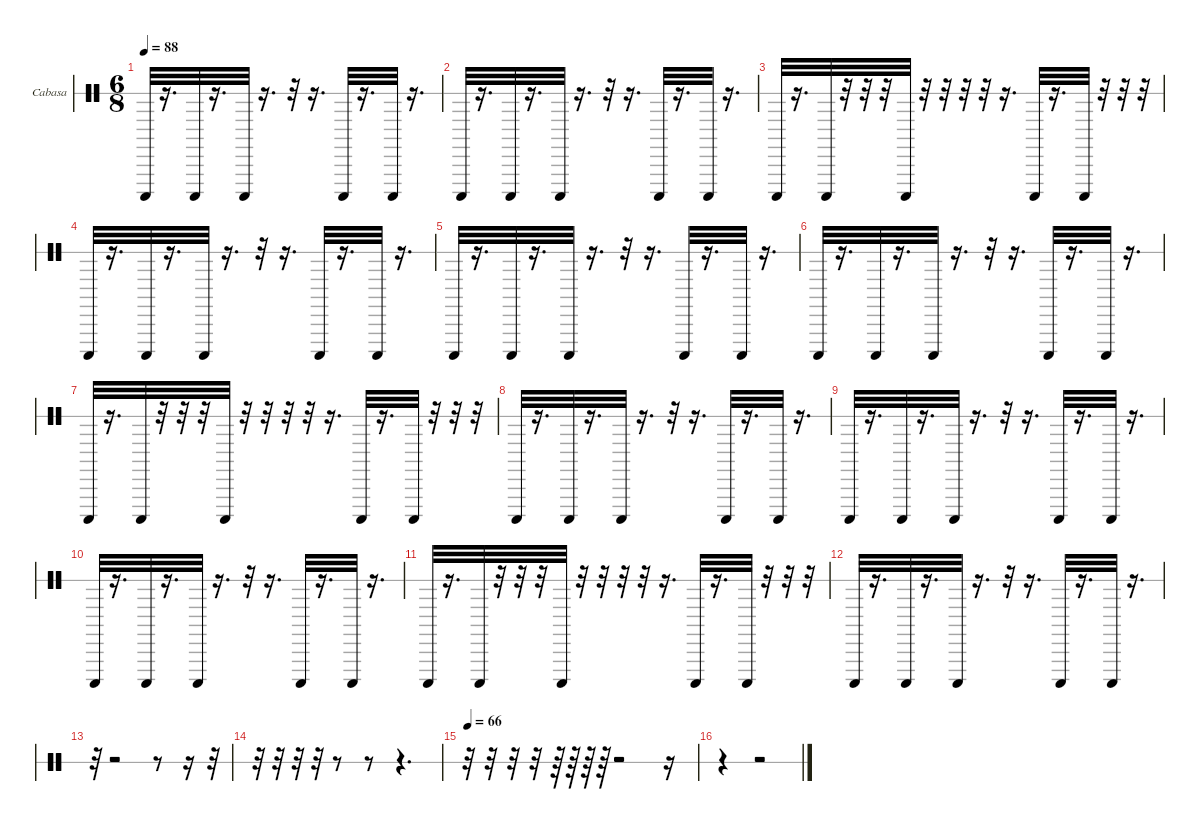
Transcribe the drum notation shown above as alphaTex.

\hideDynamics
\bracketExtendMode nobrackets
\firstSystemTrackNameOrientation horizontal
\otherSystemsTrackNameOrientation horizontal
\track ("Cabasa" "Cabasa") {instrument percussion}
\staff {score 1}
\articulation defaults
\ts (6 8)
\tempo 88
\clef neutral
\ks c "Cabasa (hit)".32{dy fff}
r.16{d} "Cabasa (hit)".32{dy mf} r.16{d} "Cabasa (hit)".32{dy mp} r.16{d} r.32 r.16{d} "Cabasa (hit)".32{dy mf} r.16{d} "Cabasa (hit)".32{dy mp} r.16{d} |
"Cabasa (hit)".32{dy fff} r.16{d} "Cabasa (hit)".32{dy mf} r.16{d} "Cabasa (hit)".32{dy mp} r.16{d} r.32 r.16{d} "Cabasa (hit)".32{dy mf} r.16{d} "Cabasa (hit)".32{dy mp} r.16{d} |
"Cabasa (hit)".32{dy fff} r.16{d} "Cabasa (hit)".32{dy mf} r.32 r.32 r.32 "Cabasa (hit)".32{dy ff} r.32 r.32 r.32 r.32 r.16{d} "Cabasa (hit)".32 r.16{d} "Cabasa (hit)".32{dy f} r.32 r.32 r.32 |
"Cabasa (hit)".32{dy fff} r.16{d} "Cabasa (hit)".32{dy mf} r.16{d} "Cabasa (hit)".32{dy mp} r.16{d} r.32 r.16{d} "Cabasa (hit)".32{dy mf} r.16{d} "Cabasa (hit)".32{dy mp} r.16{d} |
"Cabasa (hit)".32{dy fff} r.16{d} "Cabasa (hit)".32{dy mf} r.16{d} "Cabasa (hit)".32{dy mp} r.16{d} r.32 r.16{d} "Cabasa (hit)".32{dy mf} r.16{d} "Cabasa (hit)".32{dy mp} r.16{d} |
"Cabasa (hit)".32{dy fff} r.16{d} "Cabasa (hit)".32{dy mf} r.16{d} "Cabasa (hit)".32{dy mp} r.16{d} r.32 r.16{d} "Cabasa (hit)".32{dy mf} r.16{d} "Cabasa (hit)".32{dy mp} r.16{d} |
"Cabasa (hit)".32{dy fff} r.16{d} "Cabasa (hit)".32{dy mf} r.32 r.32 r.32 "Cabasa (hit)".32{dy ff} r.32 r.32 r.32 r.32 r.16{d} "Cabasa (hit)".32 r.16{d} "Cabasa (hit)".32{dy f} r.32 r.32 r.32 |
"Cabasa (hit)".32{dy fff} r.16{d} "Cabasa (hit)".32{dy mf} r.16{d} "Cabasa (hit)".32{dy mp} r.16{d} r.32 r.16{d} "Cabasa (hit)".32{dy mf} r.16{d} "Cabasa (hit)".32{dy mp} r.16{d} |
"Cabasa (hit)".32{dy fff} r.16{d} "Cabasa (hit)".32{dy mf} r.16{d} "Cabasa (hit)".32{dy mp} r.16{d} r.32 r.16{d} "Cabasa (hit)".32{dy mf} r.16{d} "Cabasa (hit)".32{dy mp} r.16{d} |
"Cabasa (hit)".32{dy fff} r.16{d} "Cabasa (hit)".32{dy mf} r.16{d} "Cabasa (hit)".32{dy mp} r.16{d} r.32 r.16{d} "Cabasa (hit)".32{dy mf} r.16{d} "Cabasa (hit)".32{dy mp} r.16{d} |
"Cabasa (hit)".32{dy fff} r.16{d} "Cabasa (hit)".32{dy mf} r.32 r.32 r.32 "Cabasa (hit)".32{dy ff} r.32 r.32 r.32 r.32 r.16{d} "Cabasa (hit)".32 r.16{d} "Cabasa (hit)".32{dy f} r.32 r.32 r.32 |
"Cabasa (hit)".32{dy fff} r.16{d} "Cabasa (hit)".32{dy mf} r.16{d} "Cabasa (hit)".32{dy mp} r.16{d} r.32 r.16{d} "Cabasa (hit)".32{dy mf} r.16{d} "Cabasa (hit)".32{dy mp} r.16{d} |
r.32 r.2 r.8 r.16 r.32 |
r.32 r.32 r.32 r.32 r.8 r.8 r.4{d} |
\tempo 66
r.32 r.32 r.32 r.32 r.64 r.64 r.64 r.64 r.2 r.16 |
r.4 r.2
